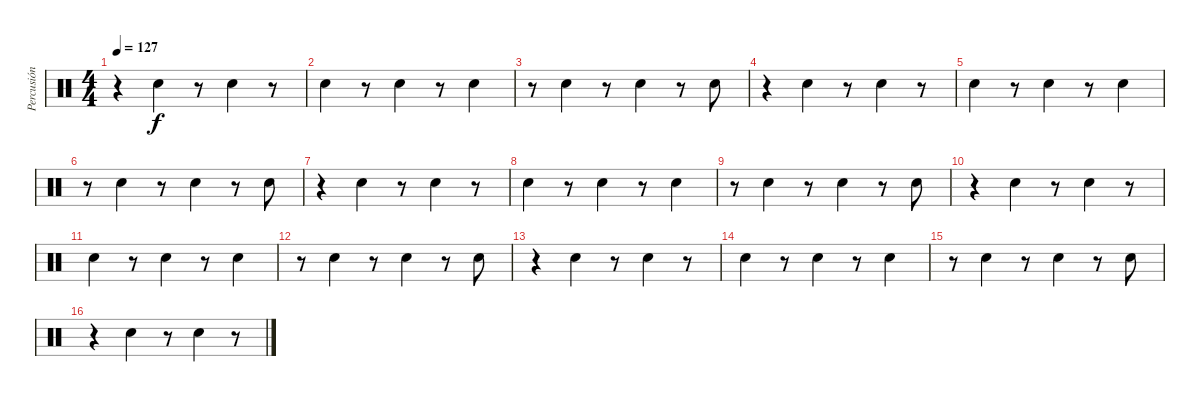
\track ("Percusión" "Percusión") {instrument percussion}
\staff {score}
\articulation defaults
\ts (4 4)
\tempo 127
\clef neutral
\ks c
r.4{dy f} "Hand Clap (hit)".4 r.8 "Hand Clap (hit)".4 r.8 |
"Hand Clap (hit)".4 r.8 "Hand Clap (hit)".4 r.8 "Hand Clap (hit)".4 |
r.8 "Hand Clap (hit)".4 r.8 "Hand Clap (hit)".4 r.8 "Hand Clap (hit)".8 |
r.4 "Hand Clap (hit)".4 r.8 "Hand Clap (hit)".4 r.8 |
"Hand Clap (hit)".4 r.8 "Hand Clap (hit)".4 r.8 "Hand Clap (hit)".4 |
r.8 "Hand Clap (hit)".4 r.8 "Hand Clap (hit)".4 r.8 "Hand Clap (hit)".8 |
r.4 "Hand Clap (hit)".4 r.8 "Hand Clap (hit)".4 r.8 |
"Hand Clap (hit)".4 r.8 "Hand Clap (hit)".4 r.8 "Hand Clap (hit)".4 |
r.8 "Hand Clap (hit)".4 r.8 "Hand Clap (hit)".4 r.8 "Hand Clap (hit)".8 |
r.4 "Hand Clap (hit)".4 r.8 "Hand Clap (hit)".4 r.8 |
"Hand Clap (hit)".4 r.8 "Hand Clap (hit)".4 r.8 "Hand Clap (hit)".4 |
r.8 "Hand Clap (hit)".4 r.8 "Hand Clap (hit)".4 r.8 "Hand Clap (hit)".8 |
r.4 "Hand Clap (hit)".4 r.8 "Hand Clap (hit)".4 r.8 |
"Hand Clap (hit)".4 r.8 "Hand Clap (hit)".4 r.8 "Hand Clap (hit)".4 |
r.8 "Hand Clap (hit)".4 r.8 "Hand Clap (hit)".4 r.8 "Hand Clap (hit)".8 |
r.4 "Hand Clap (hit)".4 r.8 "Hand Clap (hit)".4 r.8
